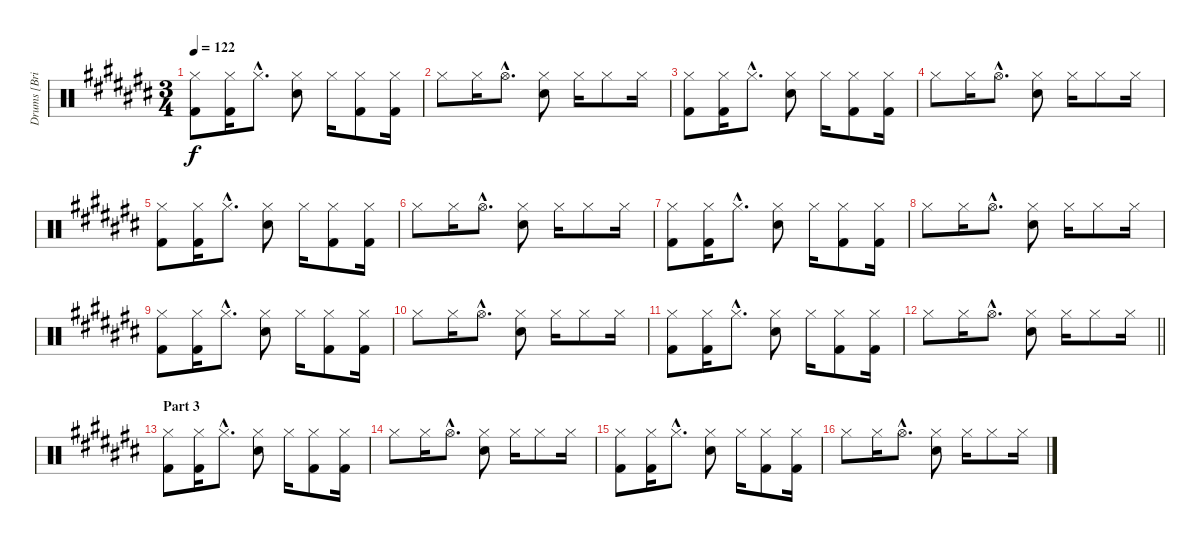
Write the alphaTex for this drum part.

\track ("Drums [Brian \"Brain\" Mantia]" "Drums [Bri") {instrument percussion}
\staff {score}
\articulation defaults
\ts (3 4)
\tempo 122
\clef neutral
\ks c#
("Hi-Hat (closed)" "Kick (hit) 2").8{dy f} ("Hi-Hat (closed)" "Kick (hit) 2").16 "Hi-Hat (closed)"{hac}.8{d} ("Hi-Hat (closed)" "Electric Snare (hit)").8 "Hi-Hat (closed)".16 ("Hi-Hat (closed)" "Kick (hit) 2").8 ("Hi-Hat (closed)" "Kick (hit) 2").16 |
"Hi-Hat (closed)".8 "Hi-Hat (closed)".16 "Hi-Hat (open)"{hac}.8{d} ("Hi-Hat (closed)" "Electric Snare (hit)").8 "Hi-Hat (closed)".16 "Hi-Hat (closed)".8 "Hi-Hat (closed)".16 |
("Hi-Hat (closed)" "Kick (hit) 2").8 ("Hi-Hat (closed)" "Kick (hit) 2").16 "Hi-Hat (closed)"{hac}.8{d} ("Hi-Hat (closed)" "Electric Snare (hit)").8 "Hi-Hat (closed)".16 ("Hi-Hat (closed)" "Kick (hit) 2").8 ("Hi-Hat (closed)" "Kick (hit) 2").16 |
"Hi-Hat (closed)".8 "Hi-Hat (closed)".16 "Hi-Hat (open)"{hac}.8{d} ("Hi-Hat (closed)" "Electric Snare (hit)").8 "Hi-Hat (closed)".16 "Hi-Hat (closed)".8 "Hi-Hat (closed)".16 |
("Hi-Hat (closed)" "Kick (hit) 2").8 ("Hi-Hat (closed)" "Kick (hit) 2").16 "Hi-Hat (closed)"{hac}.8{d} ("Hi-Hat (closed)" "Electric Snare (hit)").8 "Hi-Hat (closed)".16 ("Hi-Hat (closed)" "Kick (hit) 2").8 ("Hi-Hat (closed)" "Kick (hit) 2").16 |
"Hi-Hat (closed)".8 "Hi-Hat (closed)".16 "Hi-Hat (open)"{hac}.8{d} ("Hi-Hat (closed)" "Electric Snare (hit)").8 "Hi-Hat (closed)".16 "Hi-Hat (closed)".8 "Hi-Hat (closed)".16 |
("Hi-Hat (closed)" "Kick (hit) 2").8 ("Hi-Hat (closed)" "Kick (hit) 2").16 "Hi-Hat (closed)"{hac}.8{d} ("Hi-Hat (closed)" "Electric Snare (hit)").8 "Hi-Hat (closed)".16 ("Hi-Hat (closed)" "Kick (hit) 2").8 ("Hi-Hat (closed)" "Kick (hit) 2").16 |
"Hi-Hat (closed)".8 "Hi-Hat (closed)".16 "Hi-Hat (open)"{hac}.8{d} ("Hi-Hat (closed)" "Electric Snare (hit)").8 "Hi-Hat (closed)".16 "Hi-Hat (closed)".8 "Hi-Hat (closed)".16 |
("Hi-Hat (closed)" "Kick (hit) 2").8 ("Hi-Hat (closed)" "Kick (hit) 2").16 "Hi-Hat (closed)"{hac}.8{d} ("Hi-Hat (closed)" "Electric Snare (hit)").8 "Hi-Hat (closed)".16 ("Hi-Hat (closed)" "Kick (hit) 2").8 ("Hi-Hat (closed)" "Kick (hit) 2").16 |
"Hi-Hat (closed)".8 "Hi-Hat (closed)".16 "Hi-Hat (open)"{hac}.8{d} ("Hi-Hat (closed)" "Electric Snare (hit)").8 "Hi-Hat (closed)".16 "Hi-Hat (closed)".8 "Hi-Hat (closed)".16 |
("Hi-Hat (closed)" "Kick (hit) 2").8 ("Hi-Hat (closed)" "Kick (hit) 2").16 "Hi-Hat (closed)"{hac}.8{d} ("Hi-Hat (closed)" "Electric Snare (hit)").8 "Hi-Hat (closed)".16 ("Hi-Hat (closed)" "Kick (hit) 2").8 ("Hi-Hat (closed)" "Kick (hit) 2").16 |
\barLineRight lightlight "Hi-Hat (closed)".8 "Hi-Hat (closed)".16 "Hi-Hat (open)"{hac}.8{d}
("Hi-Hat (closed)" "Electric Snare (hit)").8 "Hi-Hat (closed)".16 "Hi-Hat (closed)".8 "Hi-Hat (closed)".16 |
\section ("" "Part 3")
("Hi-Hat (closed)" "Kick (hit) 2").8 ("Hi-Hat (closed)" "Kick (hit) 2").16 "Hi-Hat (closed)"{hac}.8{d} ("Hi-Hat (closed)" "Electric Snare (hit)").8 "Hi-Hat (closed)".16 ("Hi-Hat (closed)" "Kick (hit) 2").8 ("Hi-Hat (closed)" "Kick (hit) 2").16 |
"Hi-Hat (closed)".8 "Hi-Hat (closed)".16 "Hi-Hat (open)"{hac}.8{d} ("Hi-Hat (closed)" "Electric Snare (hit)").8 "Hi-Hat (closed)".16 "Hi-Hat (closed)".8 "Hi-Hat (closed)".16 |
("Hi-Hat (closed)" "Kick (hit) 2").8 ("Hi-Hat (closed)" "Kick (hit) 2").16 "Hi-Hat (closed)"{hac}.8{d} ("Hi-Hat (closed)" "Electric Snare (hit)").8 "Hi-Hat (closed)".16 ("Hi-Hat (closed)" "Kick (hit) 2").8 ("Hi-Hat (closed)" "Kick (hit) 2").16 |
"Hi-Hat (closed)".8 "Hi-Hat (closed)".16 "Hi-Hat (open)"{hac}.8{d} ("Hi-Hat (closed)" "Electric Snare (hit)").8 "Hi-Hat (closed)".16 "Hi-Hat (closed)".8 "Hi-Hat (closed)".16
